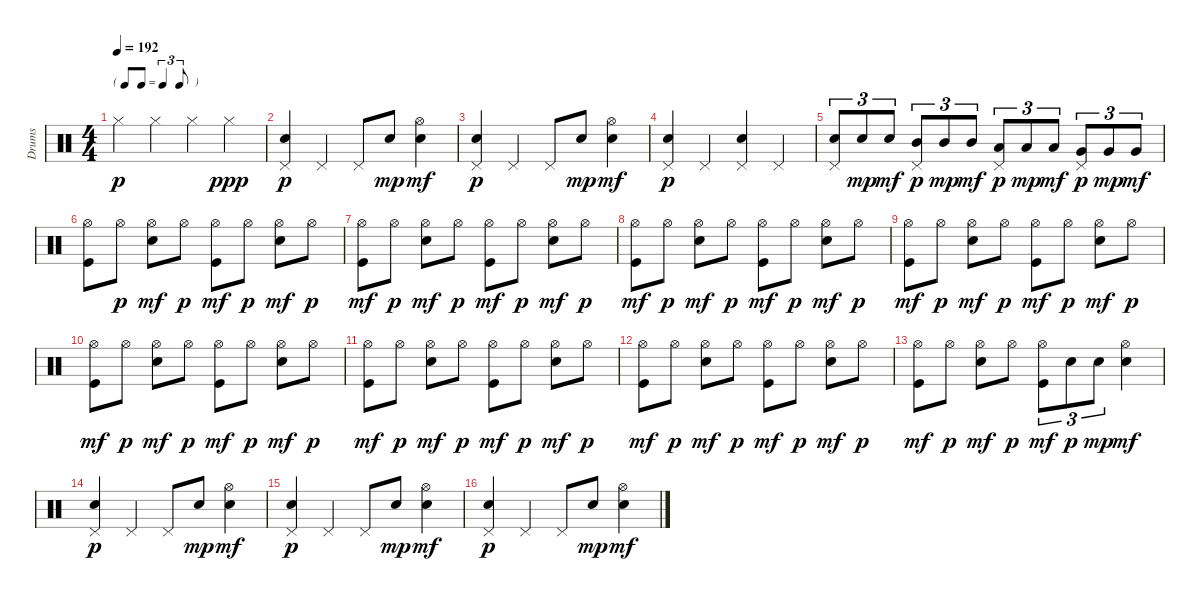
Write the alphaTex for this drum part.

\track ("Drums" "Drums") {instrument percussion}
\staff {score}
\articulation defaults
\ts (4 4)
\tf triplet8th
\tempo 192
\clef neutral
\ks c "Hi-Hat (closed)".4{dy p} "Hi-Hat (closed)".4 "Hi-Hat (closed)".4 "Hi-Hat (closed)".4{dy ppp}
|
("Pedal Hi-Hat (hit)" "Snare (hit) 2").4{dy p} "Pedal Hi-Hat (hit)".4 "Pedal Hi-Hat (hit)".8 "Snare (hit) 2".8{dy mp} ("Hi-Hat (open)" "Snare (hit) 2").4{dy mf} |
("Pedal Hi-Hat (hit)" "Snare (hit) 2").4{dy p} "Pedal Hi-Hat (hit)".4 "Pedal Hi-Hat (hit)".8 "Snare (hit) 2".8{dy mp} ("Hi-Hat (open)" "Snare (hit) 2").4{dy mf} |
("Pedal Hi-Hat (hit)" "Snare (hit) 2").4{dy p} "Pedal Hi-Hat (hit)".4 ("Pedal Hi-Hat (hit)" "Snare (hit) 2").4 "Pedal Hi-Hat (hit)".4 |
("Pedal Hi-Hat (hit)" "Snare (hit) 2").8{tu (3 2)} "Snare (hit) 2".8{tu (3 2) dy mp} "Snare (hit) 2".8{tu (3 2) dy mf} ("Pedal Hi-Hat (hit)" "Mid Tom (hit)").8{tu (3 2) dy p} "Mid Tom (hit)".8{tu (3 2) dy mp} "Mid Tom (hit)".8{tu (3 2) dy mf} ("Pedal Hi-Hat (hit)" "Low Tom (hit)").8{tu (3 2) dy p} "Low Tom (hit)".8{tu (3 2) dy mp} "Low Tom (hit)".8{tu (3 2) dy mf} ("Pedal Hi-Hat (hit)" "Very Low Tom (hit)").8{tu (3 2) dy p} "Very Low Tom (hit)".8{tu (3 2) dy mp} "Very Low Tom (hit)".8{tu (3 2) dy mf} |
("Hi-Hat (open)" "Kick (hit)").8 "Hi-Hat (open)".8{dy p} ("Hi-Hat (open)" "Snare (hit) 2").8{dy mf} "Hi-Hat (open)".8{dy p} ("Hi-Hat (open)" "Kick (hit)").8{dy mf} "Hi-Hat (open)".8{dy p} ("Hi-Hat (open)" "Snare (hit) 2").8{dy mf} "Hi-Hat (open)".8{dy p} |
("Hi-Hat (open)" "Kick (hit)").8{dy mf} "Hi-Hat (open)".8{dy p} ("Hi-Hat (open)" "Snare (hit) 2").8{dy mf} "Hi-Hat (open)".8{dy p} ("Hi-Hat (open)" "Kick (hit)").8{dy mf} "Hi-Hat (open)".8{dy p} ("Hi-Hat (open)" "Snare (hit) 2").8{dy mf} "Hi-Hat (open)".8{dy p} |
("Hi-Hat (open)" "Kick (hit)").8{dy mf} "Hi-Hat (open)".8{dy p} ("Hi-Hat (open)" "Snare (hit) 2").8{dy mf} "Hi-Hat (open)".8{dy p} ("Hi-Hat (open)" "Kick (hit)").8{dy mf} "Hi-Hat (open)".8{dy p} ("Hi-Hat (open)" "Snare (hit) 2").8{dy mf} "Hi-Hat (open)".8{dy p} |
("Hi-Hat (open)" "Kick (hit)").8{dy mf} "Hi-Hat (open)".8{dy p} ("Hi-Hat (open)" "Snare (hit) 2").8{dy mf} "Hi-Hat (open)".8{dy p} ("Hi-Hat (open)" "Kick (hit)").8{dy mf} "Hi-Hat (open)".8{dy p} ("Hi-Hat (open)" "Snare (hit) 2").8{dy mf} "Hi-Hat (open)".8{dy p} |
("Hi-Hat (open)" "Kick (hit)").8{dy mf} "Hi-Hat (open)".8{dy p} ("Hi-Hat (open)" "Snare (hit) 2").8{dy mf} "Hi-Hat (open)".8{dy p} ("Hi-Hat (open)" "Kick (hit)").8{dy mf} "Hi-Hat (open)".8{dy p} ("Hi-Hat (open)" "Snare (hit) 2").8{dy mf} "Hi-Hat (open)".8{dy p} |
("Hi-Hat (open)" "Kick (hit)").8{dy mf} "Hi-Hat (open)".8{dy p} ("Hi-Hat (open)" "Snare (hit) 2").8{dy mf} "Hi-Hat (open)".8{dy p} ("Hi-Hat (open)" "Kick (hit)").8{dy mf} "Hi-Hat (open)".8{dy p} ("Hi-Hat (open)" "Snare (hit) 2").8{dy mf} "Hi-Hat (open)".8{dy p} |
("Hi-Hat (open)" "Kick (hit)").8{dy mf} "Hi-Hat (open)".8{dy p} ("Hi-Hat (open)" "Snare (hit) 2").8{dy mf} "Hi-Hat (open)".8{dy p} ("Hi-Hat (open)" "Kick (hit)").8{dy mf} "Hi-Hat (open)".8{dy p} ("Hi-Hat (open)" "Snare (hit) 2").8{dy mf} "Hi-Hat (open)".8{dy p} |
("Hi-Hat (open)" "Kick (hit)").8{dy mf} "Hi-Hat (open)".8{dy p} ("Hi-Hat (open)" "Snare (hit) 2").8{dy mf} "Hi-Hat (open)".8{dy p} ("Hi-Hat (open)" "Kick (hit)").8{tu (3 2) dy mf} "Snare (hit) 2".8{tu (3 2) dy p} "Snare (hit) 2".8{tu (3 2) dy mp} ("Hi-Hat (open)" "Snare (hit) 2").4{dy mf} |
("Pedal Hi-Hat (hit)" "Snare (hit) 2").4{dy p} "Pedal Hi-Hat (hit)".4 "Pedal Hi-Hat (hit)".8 "Snare (hit) 2".8{dy mp} ("Hi-Hat (open)" "Snare (hit) 2").4{dy mf} |
("Pedal Hi-Hat (hit)" "Snare (hit) 2").4{dy p} "Pedal Hi-Hat (hit)".4 "Pedal Hi-Hat (hit)".8 "Snare (hit) 2".8{dy mp} ("Hi-Hat (open)" "Snare (hit) 2").4{dy mf} |
("Pedal Hi-Hat (hit)" "Snare (hit) 2").4{dy p} "Pedal Hi-Hat (hit)".4 "Pedal Hi-Hat (hit)".8 "Snare (hit) 2".8{dy mp} ("Hi-Hat (open)" "Snare (hit) 2").4{dy mf}
